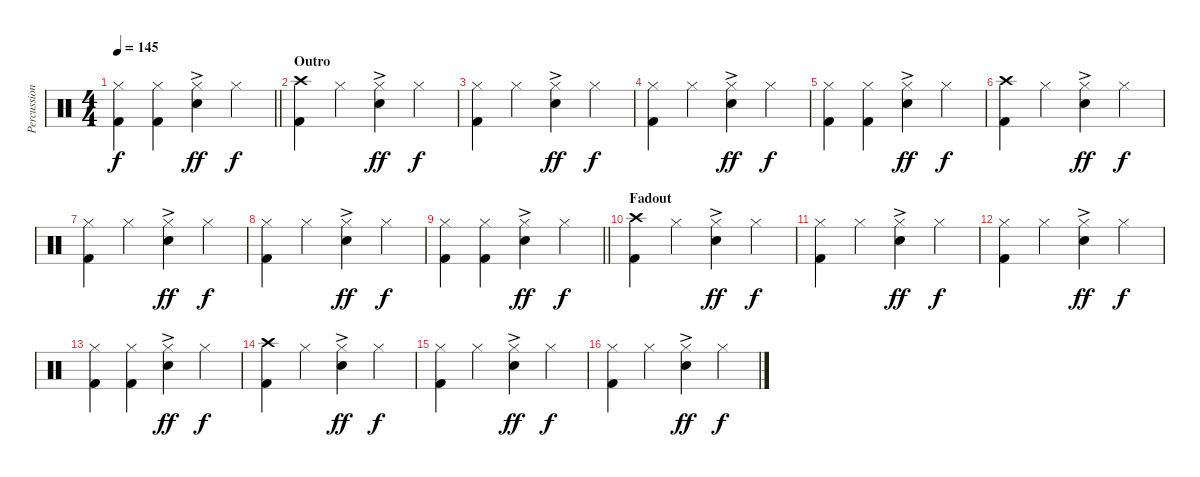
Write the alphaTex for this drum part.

\track ("Percussion" "Percussion") {instrument percussion}
\staff {score}
\articulation defaults
\ts (4 4)
\tempo 145
\clef neutral
\barLineRight lightlight
\ks c
("Hi-Hat (closed)" "Kick (hit) 2").4{dy f} ("Hi-Hat (closed)" "Kick (hit) 2").4 ("Hi-Hat (closed)" "Electric Snare (hit)"{ac}).4{dy ff} "Hi-Hat (closed)".4{dy f} |
\section ("" "Outro")
("Crash high (hit)" "Kick (hit) 2").4 "Hi-Hat (closed)".4 ("Hi-Hat (closed)" "Electric Snare (hit)"{ac}).4{dy ff} "Hi-Hat (closed)".4{dy f} |
("Hi-Hat (closed)" "Kick (hit) 2").4 "Hi-Hat (closed)".4 ("Hi-Hat (closed)" "Electric Snare (hit)"{ac}).4{dy ff} "Hi-Hat (closed)".4{dy f} |
("Hi-Hat (closed)" "Kick (hit) 2").4 "Hi-Hat (closed)".4 ("Hi-Hat (closed)" "Electric Snare (hit)"{ac}).4{dy ff} "Hi-Hat (closed)".4{dy f} |
("Hi-Hat (closed)" "Kick (hit) 2").4 ("Hi-Hat (closed)" "Kick (hit) 2").4 ("Hi-Hat (closed)" "Electric Snare (hit)"{ac}).4{dy ff} "Hi-Hat (closed)".4{dy f} |
("Crash high (hit)" "Kick (hit) 2").4 "Hi-Hat (closed)".4 ("Hi-Hat (closed)" "Electric Snare (hit)"{ac}).4{dy ff} "Hi-Hat (closed)".4{dy f} |
("Hi-Hat (closed)" "Kick (hit) 2").4 "Hi-Hat (closed)".4 ("Hi-Hat (closed)" "Electric Snare (hit)"{ac}).4{dy ff} "Hi-Hat (closed)".4{dy f} |
("Hi-Hat (closed)" "Kick (hit) 2").4 "Hi-Hat (closed)".4 ("Hi-Hat (closed)" "Electric Snare (hit)"{ac}).4{dy ff} "Hi-Hat (closed)".4{dy f} |
\barLineRight lightlight
("Hi-Hat (closed)" "Kick (hit) 2").4 ("Hi-Hat (closed)" "Kick (hit) 2").4 ("Hi-Hat (closed)" "Electric Snare (hit)"{ac}).4{dy ff} "Hi-Hat (closed)".4{dy f} |
\section ("" "Fadout")
("Crash high (hit)" "Kick (hit) 2").4{volume 7} "Hi-Hat (closed)".4 ("Hi-Hat (closed)" "Electric Snare (hit)"{ac}).4{dy ff} "Hi-Hat (closed)".4{dy f} |
("Hi-Hat (closed)" "Kick (hit) 2").4 "Hi-Hat (closed)".4 ("Hi-Hat (closed)" "Electric Snare (hit)"{ac}).4{dy ff} "Hi-Hat (closed)".4{dy f} |
("Hi-Hat (closed)" "Kick (hit) 2").4 "Hi-Hat (closed)".4 ("Hi-Hat (closed)" "Electric Snare (hit)"{ac}).4{dy ff} "Hi-Hat (closed)".4{dy f} |
("Hi-Hat (closed)" "Kick (hit) 2").4 ("Hi-Hat (closed)" "Kick (hit) 2").4 ("Hi-Hat (closed)" "Electric Snare (hit)"{ac}).4{dy ff} "Hi-Hat (closed)".4{dy f} |
("Crash high (hit)" "Kick (hit) 2").4{volume 0} "Hi-Hat (closed)".4 ("Hi-Hat (closed)" "Electric Snare (hit)"{ac}).4{dy ff} "Hi-Hat (closed)".4{dy f} |
("Hi-Hat (closed)" "Kick (hit) 2").4 "Hi-Hat (closed)".4 ("Hi-Hat (closed)" "Electric Snare (hit)"{ac}).4{dy ff} "Hi-Hat (closed)".4{dy f} |
("Hi-Hat (closed)" "Kick (hit) 2").4 "Hi-Hat (closed)".4 ("Hi-Hat (closed)" "Electric Snare (hit)"{ac}).4{dy ff} "Hi-Hat (closed)".4{dy f}
